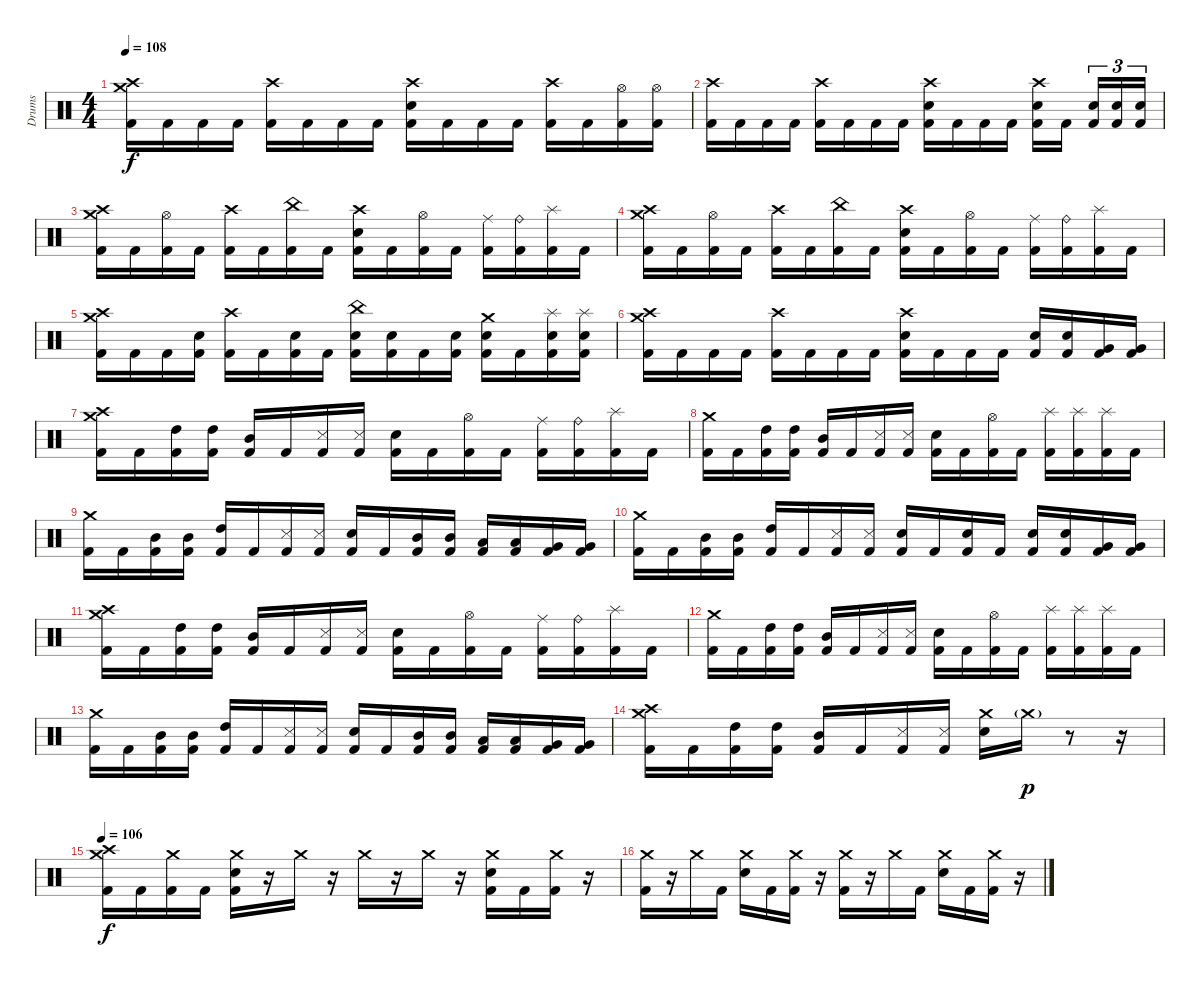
\track ("Drums" "Drums") {instrument percussion}
\staff {score}
\articulation defaults
\ts (4 4)
\tempo 108
\clef neutral
\ks c
("Crash medium (hit)" "Crash high (hit)" "Kick (hit) 2").16{dy f} "Kick (hit) 2".16 "Kick (hit) 2".16 "Kick (hit) 2".16 ("Crash high (hit)" "Kick (hit) 2").16 "Kick (hit) 2".16 "Kick (hit) 2".16 "Kick (hit) 2".16 ("Crash high (hit)" "Electric Snare (hit)" "Kick (hit) 2").16 "Kick (hit) 2".16 "Kick (hit) 2".16 "Kick (hit) 2".16 ("Crash high (hit)" "Kick (hit) 2").16 "Kick (hit) 2".16 ("Hi-Hat (open)" "Kick (hit) 2").16 ("Hi-Hat (open)" "Kick (hit) 2").16 |
("Crash high (hit)" "Kick (hit) 2").16 "Kick (hit) 2".16 "Kick (hit) 2".16 "Kick (hit) 2".16 ("Crash high (hit)" "Kick (hit) 2").16 "Kick (hit) 2".16 "Kick (hit) 2".16 "Kick (hit) 2".16 ("Crash high (hit)" "Electric Snare (hit)" "Kick (hit) 2").16 "Kick (hit) 2".16 "Kick (hit) 2".16 "Kick (hit) 2".16 ("Crash high (hit)" "Electric Snare (hit)" "Kick (hit) 2").16 "Kick (hit) 2".16{beam splitsecondary} ("Electric Snare (hit)" "Kick (hit) 2").16{tu (3 2)} ("Electric Snare (hit)" "Kick (hit) 2").16{tu (3 2)} ("Electric Snare (hit)" "Kick (hit) 2").16{tu (3 2)} |
("Crash medium (hit)" "Crash high (hit)" "Kick (hit) 2").16 "Kick (hit) 2".16 ("Hi-Hat (open)" "Kick (hit) 2").16 "Kick (hit) 2".16 ("Crash high (hit)" "Kick (hit) 2").16 "Kick (hit) 2".16 ("China (hit)" "Kick (hit) 2").16 "Kick (hit) 2".16 ("Crash high (hit)" "Electric Snare (hit)" "Kick (hit) 2").16 "Kick (hit) 2".16 ("Hi-Hat (open)" "Kick (hit) 2").16 "Kick (hit) 2".16 ("Ride (middle)" "Kick (hit) 2").16 ("Ride (bell)" "Kick (hit) 2").16 ("Splash (hit)" "Kick (hit) 2").16 "Kick (hit) 2".16 |
("Crash medium (hit)" "Crash high (hit)" "Kick (hit) 2").16 "Kick (hit) 2".16 ("Hi-Hat (open)" "Kick (hit) 2").16 "Kick (hit) 2".16 ("Crash high (hit)" "Kick (hit) 2").16 "Kick (hit) 2".16 ("China (hit)" "Kick (hit) 2").16 "Kick (hit) 2".16 ("Crash high (hit)" "Electric Snare (hit)" "Kick (hit) 2").16 "Kick (hit) 2".16 ("Hi-Hat (open)" "Kick (hit) 2").16 "Kick (hit) 2".16 ("Ride (middle)" "Kick (hit) 2").16 ("Ride (bell)" "Kick (hit) 2").16 ("Splash (hit)" "Kick (hit) 2").16 "Kick (hit) 2".16 |
("Crash medium (hit)" "Crash high (hit)" "Kick (hit) 2").16 "Kick (hit) 2".16 "Kick (hit) 2".16 ("Electric Snare (hit)" "Kick (hit) 2").16 ("Crash high (hit)" "Kick (hit) 2").16 "Kick (hit) 2".16 ("Electric Snare (hit)" "Kick (hit) 2").16 "Kick (hit) 2".16 ("China (hit)" "Electric Snare (hit)" "Kick (hit) 2").16 ("Electric Snare (hit)" "Kick (hit) 2").16 "Kick (hit) 2".16 ("Electric Snare (hit)" "Kick (hit) 2").16 ("Crash medium (hit)" "Electric Snare (hit)" "Kick (hit) 2").16 "Kick (hit) 2".16 ("Splash (hit)" "Electric Snare (hit)" "Kick (hit) 2").16 ("Splash (hit)" "Electric Snare (hit)" "Kick (hit) 2").16 |
("Crash high (hit)" "Crash medium (hit)" "Kick (hit) 2").16 "Kick (hit) 2".16 "Kick (hit) 2".16 "Kick (hit) 2".16 ("Crash high (hit)" "Kick (hit) 2").16 "Kick (hit) 2".16 "Kick (hit) 2".16 "Kick (hit) 2".16 ("Crash high (hit)" "Electric Snare (hit)" "Kick (hit) 2").16 "Kick (hit) 2".16 "Kick (hit) 2".16 "Kick (hit) 2".16 ("Electric Snare (hit)" "Kick (hit) 2").16 ("Electric Snare (hit)" "Kick (hit) 2").16 ("Very Low Tom (hit)" "Kick (hit) 2").16 ("Very Low Tom (hit)" "Kick (hit) 2").16 |
("Crash medium (hit)" "Crash high (hit)" "Kick (hit) 2").16 "Kick (hit) 2".16 ("High Tom (hit)" "Kick (hit) 2").16 ("High Tom (hit)" "Kick (hit) 2").16 ("Mid Tom (hit)" "Kick (hit) 2").16 "Kick (hit) 2".16 ("Snare (side stick) 3" "Kick (hit) 2").16 ("Snare (side stick) 3" "Kick (hit) 2").16 ("Electric Snare (hit)" "Kick (hit) 2").16 "Kick (hit) 2".16 ("Hi-Hat (open)" "Kick (hit) 2").16 "Kick (hit) 2".16 ("Ride (middle)" "Kick (hit) 2").16 ("Ride (bell)" "Kick (hit) 2").16 ("Splash (hit)" "Kick (hit) 2").16 "Kick (hit) 2".16 |
("Crash medium (hit)" "Kick (hit) 2").16 "Kick (hit) 2".16 ("High Tom (hit)" "Kick (hit) 2").16 ("High Tom (hit)" "Kick (hit) 2").16 ("Mid Tom (hit)" "Kick (hit) 2").16 "Kick (hit) 2".16 ("Snare (side stick) 3" "Kick (hit) 2").16 ("Snare (side stick) 3" "Kick (hit) 2").16 ("Electric Snare (hit)" "Kick (hit) 2").16 "Kick (hit) 2".16 ("Hi-Hat (open)" "Kick (hit) 2").16 "Kick (hit) 2".16 ("Splash (hit)" "Kick (hit) 2").16 ("Splash (hit)" "Kick (hit) 2").16 ("Splash (hit)" "Kick (hit) 2").16 "Kick (hit) 2".16 |
("Crash medium (hit)" "Kick (hit) 2").16 "Kick (hit) 2".16 ("Mid Tom (hit)" "Kick (hit) 2").16 ("Mid Tom (hit)" "Kick (hit) 2").16 ("High Tom (hit)" "Kick (hit) 2").16 "Kick (hit) 2".16 ("Snare (side stick) 3" "Kick (hit) 2").16 ("Snare (side stick) 3" "Kick (hit) 2").16 ("Electric Snare (hit)" "Kick (hit) 2").16 "Kick (hit) 2".16 ("Mid Tom (hit)" "Kick (hit) 2").16 ("Mid Tom (hit)" "Kick (hit) 2").16 ("Low Tom (hit)" "Kick (hit) 2").16 ("Low Tom (hit)" "Kick (hit) 2").16 ("Very Low Tom (hit)" "Kick (hit) 2").16 ("Very Low Tom (hit)" "Kick (hit) 2").16 |
("Crash medium (hit)" "Kick (hit) 2").16 "Kick (hit) 2".16 ("Mid Tom (hit)" "Kick (hit) 2").16 ("Mid Tom (hit)" "Kick (hit) 2").16 ("High Tom (hit)" "Kick (hit) 2").16 "Kick (hit) 2".16 ("Snare (side stick) 3" "Kick (hit) 2").16 ("Snare (side stick) 3" "Kick (hit) 2").16 ("Electric Snare (hit)" "Kick (hit) 2").16 "Kick (hit) 2".16 ("Electric Snare (hit)" "Kick (hit) 2").16 "Kick (hit) 2".16 ("Electric Snare (hit)" "Kick (hit) 2").16 ("Electric Snare (hit)" "Kick (hit) 2").16 ("Very Low Tom (hit)" "Kick (hit) 2").16 ("Very Low Tom (hit)" "Kick (hit) 2").16 |
("Crash medium (hit)" "Crash high (hit)" "Kick (hit) 2").16 "Kick (hit) 2".16 ("High Tom (hit)" "Kick (hit) 2").16 ("High Tom (hit)" "Kick (hit) 2").16 ("Mid Tom (hit)" "Kick (hit) 2").16 "Kick (hit) 2".16 ("Snare (side stick) 3" "Kick (hit) 2").16 ("Snare (side stick) 3" "Kick (hit) 2").16 ("Electric Snare (hit)" "Kick (hit) 2").16 "Kick (hit) 2".16 ("Hi-Hat (open)" "Kick (hit) 2").16 "Kick (hit) 2".16 ("Ride (middle)" "Kick (hit) 2").16 ("Ride (bell)" "Kick (hit) 2").16 ("Splash (hit)" "Kick (hit) 2").16 "Kick (hit) 2".16 |
("Crash medium (hit)" "Kick (hit) 2").16 "Kick (hit) 2".16 ("High Tom (hit)" "Kick (hit) 2").16 ("High Tom (hit)" "Kick (hit) 2").16 ("Mid Tom (hit)" "Kick (hit) 2").16 "Kick (hit) 2".16 ("Snare (side stick) 3" "Kick (hit) 2").16 ("Snare (side stick) 3" "Kick (hit) 2").16 ("Electric Snare (hit)" "Kick (hit) 2").16 "Kick (hit) 2".16 ("Hi-Hat (open)" "Kick (hit) 2").16 "Kick (hit) 2".16 ("Splash (hit)" "Kick (hit) 2").16 ("Splash (hit)" "Kick (hit) 2").16 ("Splash (hit)" "Kick (hit) 2").16 "Kick (hit) 2".16 |
("Crash medium (hit)" "Kick (hit) 2").16 "Kick (hit) 2".16 ("Mid Tom (hit)" "Kick (hit) 2").16 ("Mid Tom (hit)" "Kick (hit) 2").16 ("High Tom (hit)" "Kick (hit) 2").16 "Kick (hit) 2".16 ("Snare (side stick) 3" "Kick (hit) 2").16 ("Snare (side stick) 3" "Kick (hit) 2").16 ("Electric Snare (hit)" "Kick (hit) 2").16 "Kick (hit) 2".16 ("Mid Tom (hit)" "Kick (hit) 2").16 ("Mid Tom (hit)" "Kick (hit) 2").16 ("Low Tom (hit)" "Kick (hit) 2").16 ("Low Tom (hit)" "Kick (hit) 2").16 ("Very Low Tom (hit)" "Kick (hit) 2").16 ("Very Low Tom (hit)" "Kick (hit) 2").16 |
("Crash medium (hit)" "Crash high (hit)" "Kick (hit) 2").16 "Kick (hit) 2".16 ("High Tom (hit)" "Kick (hit) 2").16 ("High Tom (hit)" "Kick (hit) 2").16 ("Mid Tom (hit)" "Kick (hit) 2").16 "Kick (hit) 2".16 ("Snare (side stick) 3" "Kick (hit) 2").16 ("Snare (side stick) 3" "Kick (hit) 2").16 ("Crash medium (hit)" "Electric Snare (hit)").16 "Crash medium (hit)"{g}.16{dy p} r.8 r.16 |
\tempo 106
("Crash medium (hit)" "Crash high (hit)" "Kick (hit) 2").16{dy f} "Kick (hit) 2".16 ("Crash medium (hit)" "Kick (hit) 2").16 "Kick (hit) 2".16 ("Crash medium (hit)" "Electric Snare (hit)" "Kick (hit) 2").16 r.16 "Crash medium (hit)".16 r.16 "Crash medium (hit)".16 r.16 "Crash medium (hit)".16 r.16 ("Crash medium (hit)" "Electric Snare (hit)" "Kick (hit) 2").16 "Kick (hit) 2".16 ("Crash medium (hit)" "Kick (hit) 2").16 r.16 |
("Crash medium (hit)" "Kick (hit) 2").16 r.16 "Crash medium (hit)".16 "Kick (hit) 2".16 ("Crash medium (hit)" "Electric Snare (hit)").16 "Kick (hit) 2".16 ("Crash medium (hit)" "Kick (hit) 2").16 r.16 ("Crash medium (hit)" "Kick (hit) 2").16 r.16 "Crash medium (hit)".16 "Kick (hit) 2".16 ("Crash medium (hit)" "Electric Snare (hit)").16 "Kick (hit) 2".16 ("Crash medium (hit)" "Kick (hit) 2").16 r.16
